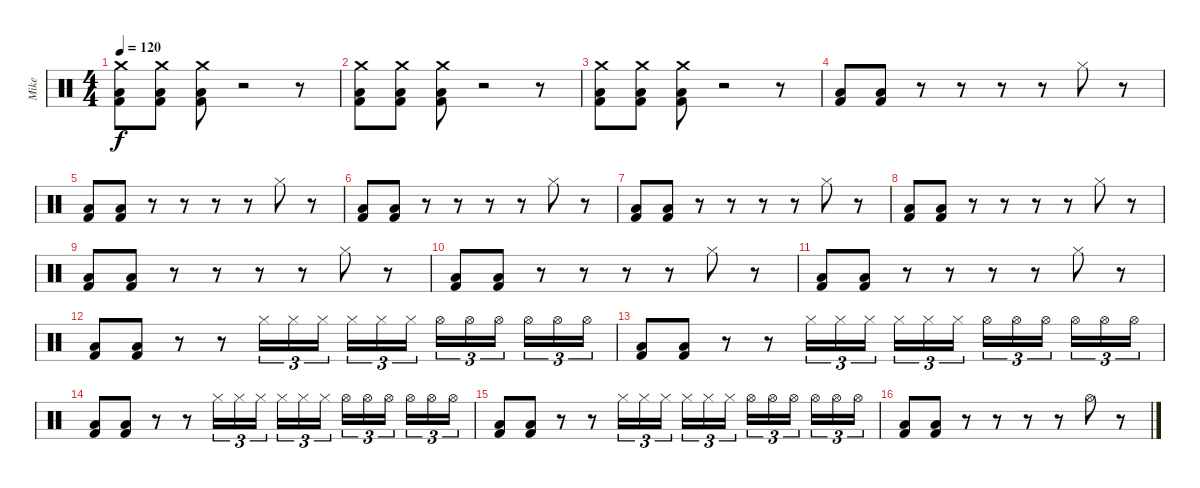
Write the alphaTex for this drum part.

\track ("Mike" "Mike") {instrument percussion}
\staff {score}
\articulation defaults
\ts (4 4)
\tempo 120
\clef neutral
\ks c
("Crash medium (hit)" "Low Floor Tom (hit)" "Kick (hit) 2").8{dy f} ("Crash medium (hit)" "Low Floor Tom (hit)" "Kick (hit) 2").8 ("Crash medium (hit)" "Low Floor Tom (hit)" "Kick (hit) 2").8 r.2 r.8 |
("Crash medium (hit)" "Low Floor Tom (hit)" "Kick (hit) 2").8 ("Crash medium (hit)" "Low Floor Tom (hit)" "Kick (hit) 2").8 ("Crash medium (hit)" "Low Floor Tom (hit)" "Kick (hit) 2").8 r.2 r.8 |
("Crash medium (hit)" "Low Floor Tom (hit)" "Kick (hit) 2").8 ("Crash medium (hit)" "Low Floor Tom (hit)" "Kick (hit) 2").8 ("Crash medium (hit)" "Low Floor Tom (hit)" "Kick (hit) 2").8 r.2 r.8 |
("Low Floor Tom (hit)" "Kick (hit) 2").8 ("Low Floor Tom (hit)" "Kick (hit) 2").8 r.8 r.8 r.8 r.8 "Hi-Hat (closed)".8 r.8 |
("Low Floor Tom (hit)" "Kick (hit) 2").8 ("Low Floor Tom (hit)" "Kick (hit) 2").8 r.8 r.8 r.8 r.8 "Hi-Hat (closed)".8 r.8 |
("Low Floor Tom (hit)" "Kick (hit) 2").8 ("Low Floor Tom (hit)" "Kick (hit) 2").8 r.8 r.8 r.8 r.8 "Hi-Hat (closed)".8 r.8 |
("Low Floor Tom (hit)" "Kick (hit) 2").8 ("Low Floor Tom (hit)" "Kick (hit) 2").8 r.8 r.8 r.8 r.8 "Hi-Hat (closed)".8 r.8 |
("Low Floor Tom (hit)" "Kick (hit) 2").8 ("Low Floor Tom (hit)" "Kick (hit) 2").8 r.8 r.8 r.8 r.8 "Hi-Hat (closed)".8 r.8 |
("Low Floor Tom (hit)" "Kick (hit) 2").8 ("Low Floor Tom (hit)" "Kick (hit) 2").8 r.8 r.8 r.8 r.8 "Hi-Hat (closed)".8 r.8 |
("Low Floor Tom (hit)" "Kick (hit) 2").8 ("Low Floor Tom (hit)" "Kick (hit) 2").8 r.8 r.8 r.8 r.8 "Hi-Hat (closed)".8 r.8 |
("Low Floor Tom (hit)" "Kick (hit) 2").8 ("Low Floor Tom (hit)" "Kick (hit) 2").8 r.8 r.8 r.8 r.8 "Hi-Hat (closed)".8 r.8 |
("Low Floor Tom (hit)" "Kick (hit) 2").8 ("Low Floor Tom (hit)" "Kick (hit) 2").8 r.8 r.8 "Hi-Hat (closed)".16{tu (3 2)} "Hi-Hat (closed)".16{tu (3 2)} "Hi-Hat (closed)".16{tu (3 2) beam splitsecondary} "Hi-Hat (closed)".16{tu (3 2)} "Hi-Hat (closed)".16{tu (3 2)} "Hi-Hat (closed)".16{tu (3 2)} "Hi-Hat (open)".16{tu (3 2)} "Hi-Hat (open)".16{tu (3 2)} "Hi-Hat (open)".16{tu (3 2) beam splitsecondary} "Hi-Hat (open)".16{tu (3 2)} "Hi-Hat (open)".16{tu (3 2)} "Hi-Hat (open)".16{tu (3 2)} |
("Low Floor Tom (hit)" "Kick (hit) 2").8 ("Low Floor Tom (hit)" "Kick (hit) 2").8 r.8 r.8 "Hi-Hat (closed)".16{tu (3 2)} "Hi-Hat (closed)".16{tu (3 2)} "Hi-Hat (closed)".16{tu (3 2) beam splitsecondary} "Hi-Hat (closed)".16{tu (3 2)} "Hi-Hat (closed)".16{tu (3 2)} "Hi-Hat (closed)".16{tu (3 2)} "Hi-Hat (open)".16{tu (3 2)} "Hi-Hat (open)".16{tu (3 2)} "Hi-Hat (open)".16{tu (3 2) beam splitsecondary} "Hi-Hat (open)".16{tu (3 2)} "Hi-Hat (open)".16{tu (3 2)} "Hi-Hat (open)".16{tu (3 2)} |
("Low Floor Tom (hit)" "Kick (hit) 2").8 ("Low Floor Tom (hit)" "Kick (hit) 2").8 r.8 r.8 "Hi-Hat (closed)".16{tu (3 2)} "Hi-Hat (closed)".16{tu (3 2)} "Hi-Hat (closed)".16{tu (3 2) beam splitsecondary} "Hi-Hat (closed)".16{tu (3 2)} "Hi-Hat (closed)".16{tu (3 2)} "Hi-Hat (closed)".16{tu (3 2)} "Hi-Hat (open)".16{tu (3 2)} "Hi-Hat (open)".16{tu (3 2)} "Hi-Hat (open)".16{tu (3 2) beam splitsecondary} "Hi-Hat (open)".16{tu (3 2)} "Hi-Hat (open)".16{tu (3 2)} "Hi-Hat (open)".16{tu (3 2)} |
("Low Floor Tom (hit)" "Kick (hit) 2").8 ("Low Floor Tom (hit)" "Kick (hit) 2").8 r.8 r.8 "Hi-Hat (closed)".16{tu (3 2)} "Hi-Hat (closed)".16{tu (3 2)} "Hi-Hat (closed)".16{tu (3 2) beam splitsecondary} "Hi-Hat (closed)".16{tu (3 2)} "Hi-Hat (closed)".16{tu (3 2)} "Hi-Hat (closed)".16{tu (3 2)} "Hi-Hat (open)".16{tu (3 2)} "Hi-Hat (open)".16{tu (3 2)} "Hi-Hat (open)".16{tu (3 2) beam splitsecondary} "Hi-Hat (open)".16{tu (3 2)} "Hi-Hat (open)".16{tu (3 2)} "Hi-Hat (open)".16{tu (3 2)} |
("Low Floor Tom (hit)" "Kick (hit) 2").8 ("Low Floor Tom (hit)" "Kick (hit) 2").8 r.8 r.8 r.8 r.8 "Hi-Hat (open)".8 r.8
